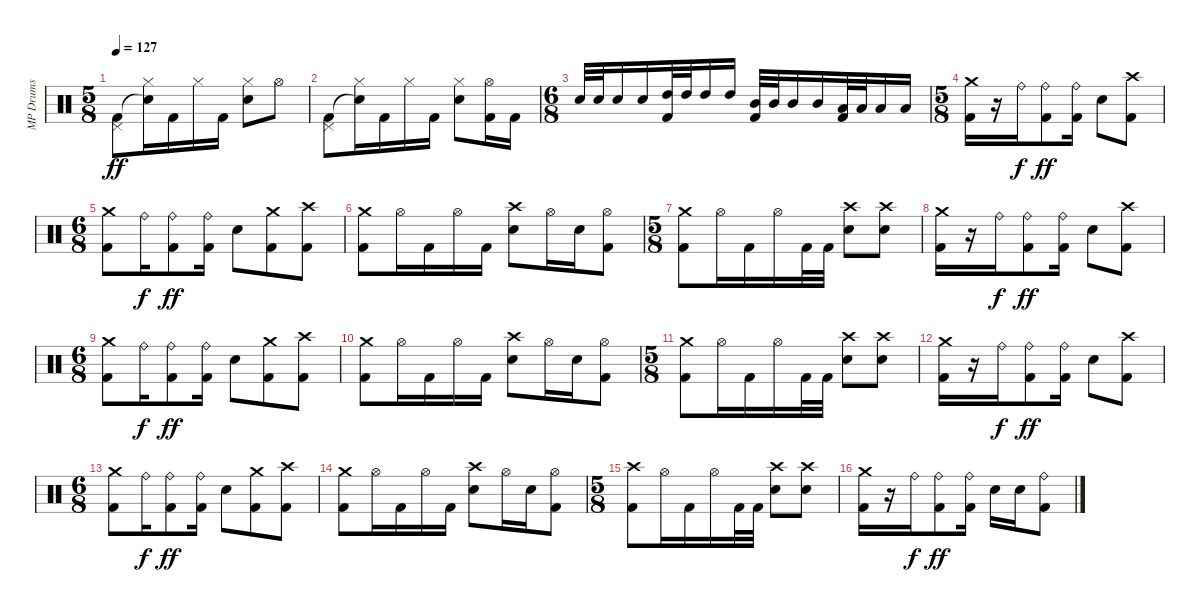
\track ("MP Drums" "MP Drums") {instrument percussion}
\staff {score}
\articulation defaults
\ts (5 8)
\tempo 127
\clef neutral
\ks c
("Pedal Hi-Hat (hit)" "Kick (hit) 2").8{dy ff} ("Hi-Hat (closed)" "Snare (hit)"{t}).16 "Kick (hit) 2".16 "Hi-Hat (closed)".16 "Kick (hit) 2".16 ("Hi-Hat (closed)" "Snare (hit) 2").8 "Hi-Hat (open)".8 |
("Pedal Hi-Hat (hit)" "Kick (hit) 2").8 ("Hi-Hat (closed)" "Snare (hit)"{t}).16 "Kick (hit) 2".16 "Hi-Hat (closed)".16 "Kick (hit) 2".16 ("Hi-Hat (closed)" "Snare (hit) 2").8 ("Hi-Hat (open)" "Kick (hit) 2").16 "Kick (hit) 2".16 |
\ts (6 8)
"Snare (hit) 2".32 "Snare (hit) 2".32 "Snare (hit) 2".16 "Snare (hit) 2".16 ("High Tom (hit)" "Kick (hit) 2").32 "High Tom (hit)".32 "High Tom (hit)".16 "High Tom (hit)".16 ("Mid Tom (hit)" "Kick (hit) 2").32 "Mid Tom (hit)".32 "Mid Tom (hit)".16 "Mid Tom (hit)".16 ("Low Tom (hit)" "Kick (hit) 2").32 "Low Tom (hit)".32 "Low Tom (hit)".16 "Low Tom (hit)".16 |
\ts (5 8)
("Crash medium (hit)" "Kick (hit) 2").16 r.16 "Ride (bell)".16{dy f} ("Ride (bell)" "Kick (hit) 2").8{dy ff} ("Ride (bell)" "Kick (hit) 2").16 "Snare (hit) 2".8 ("Crash high (hit)" "Kick (hit) 2").8 |
\ts (6 8)
("Crash medium (hit)" "Kick (hit) 2").8 "Ride (bell)".16{dy f} ("Ride (bell)" "Kick (hit) 2").8{dy ff} ("Ride (bell)" "Kick (hit) 2").16 "Snare (hit) 2".8 ("Crash medium (hit)" "Kick (hit) 2").8 ("Crash high (hit)" "Kick (hit) 2").8 |
("Crash medium (hit)" "Kick (hit) 2").8 "Hi-Hat (open)".16 "Kick (hit) 2".16 "Hi-Hat (open)".16 "Kick (hit) 2".16 ("Crash high (hit)" "Snare (hit) 2").8 "Hi-Hat (open)".16 "Snare (hit) 2".16 ("Hi-Hat (open)" "Kick (hit) 2").8 |
\ts (5 8)
("Crash medium (hit)" "Kick (hit) 2").8 "Hi-Hat (open)".16 "Kick (hit) 2".16 "Hi-Hat (open)".16 "Kick (hit) 2".32 "Kick (hit) 2".32 ("Crash high (hit)" "Snare (hit) 2").8 ("Crash high (hit)" "Snare (hit) 2").8 |
("Crash medium (hit)" "Kick (hit) 2").16 r.16 "Ride (bell)".16{dy f} ("Ride (bell)" "Kick (hit) 2").8{dy ff} ("Ride (bell)" "Kick (hit) 2").16 "Snare (hit) 2".8 ("Crash high (hit)" "Kick (hit) 2").8 |
\ts (6 8)
("Crash medium (hit)" "Kick (hit) 2").8 "Ride (bell)".16{dy f} ("Ride (bell)" "Kick (hit) 2").8{dy ff} ("Ride (bell)" "Kick (hit) 2").16 "Snare (hit) 2".8 ("Crash medium (hit)" "Kick (hit) 2").8 ("Crash high (hit)" "Kick (hit) 2").8 |
("Crash medium (hit)" "Kick (hit) 2").8 "Hi-Hat (open)".16 "Kick (hit) 2".16 "Hi-Hat (open)".16 "Kick (hit) 2".16 ("Crash high (hit)" "Snare (hit) 2").8 "Hi-Hat (open)".16 "Snare (hit) 2".16 ("Hi-Hat (open)" "Kick (hit) 2").8 |
\ts (5 8)
("Crash medium (hit)" "Kick (hit) 2").8 "Hi-Hat (open)".16 "Kick (hit) 2".16 "Hi-Hat (open)".16 "Kick (hit) 2".32 "Kick (hit) 2".32 ("Crash high (hit)" "Snare (hit) 2").8 ("Crash high (hit)" "Snare (hit) 2").8 |
("Crash medium (hit)" "Kick (hit) 2").16 r.16 "Ride (bell)".16{dy f} ("Ride (bell)" "Kick (hit) 2").8{dy ff} ("Ride (bell)" "Kick (hit) 2").16 "Snare (hit) 2".8 ("Crash high (hit)" "Kick (hit) 2").8 |
\ts (6 8)
("Crash medium (hit)" "Kick (hit) 2").8 "Ride (bell)".16{dy f} ("Ride (bell)" "Kick (hit) 2").8{dy ff} ("Ride (bell)" "Kick (hit) 2").16 "Snare (hit) 2".8 ("Crash medium (hit)" "Kick (hit) 2").8 ("Crash high (hit)" "Kick (hit) 2").8 |
("Crash medium (hit)" "Kick (hit) 2").8 "Hi-Hat (open)".16 "Kick (hit) 2".16 "Hi-Hat (open)".16 "Kick (hit) 2".16 ("Crash high (hit)" "Snare (hit) 2").8 "Hi-Hat (open)".16 "Snare (hit) 2".16 ("Hi-Hat (open)" "Kick (hit) 2").8 |
\ts (5 8)
("Crash high (hit)" "Kick (hit) 2").8 "Hi-Hat (open)".16 "Kick (hit) 2".16 "Hi-Hat (open)".16 "Kick (hit) 2".32 "Kick (hit) 2".32 ("Crash high (hit)" "Snare (hit) 2").8 ("Crash high (hit)" "Snare (hit) 2").8 |
("Crash medium (hit)" "Kick (hit) 2").16 r.16 "Ride (bell)".16{dy f} ("Ride (bell)" "Kick (hit) 2").8{dy ff} ("Ride (bell)" "Kick (hit) 2").16 "Snare (hit) 2".16 "Snare (hit) 2".16 ("Ride (bell)" "Kick (hit) 2").8
